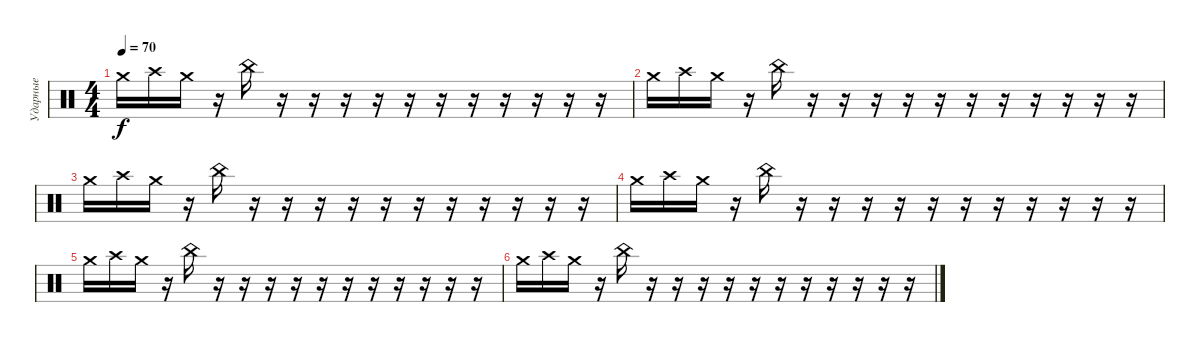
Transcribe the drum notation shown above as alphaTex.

\track ("Ударные" "Ударные") {instrument percussion}
\staff {score}
\articulation defaults
\ts (4 4)
\tempo 70
\clef neutral
\ks c "Crash medium (hit)".16{dy f} "Crash high (hit)".16 "Crash medium (hit)".16
r.16 "China (hit)".16 r.16 r.16 r.16 r.16 r.16 r.16 r.16 r.16 r.16 r.16 r.16 |
"Crash medium (hit)".16 "Crash high (hit)".16 "Crash medium (hit)".16 r.16 "China (hit)".16 r.16 r.16 r.16 r.16 r.16 r.16 r.16 r.16 r.16 r.16 r.16 |
"Crash medium (hit)".16{volume 0} "Crash high (hit)".16 "Crash medium (hit)".16 r.16 "China (hit)".16 r.16 r.16 r.16 r.16 r.16 r.16 r.16 r.16 r.16 r.16 r.16 |
"Crash medium (hit)".16 "Crash high (hit)".16 "Crash medium (hit)".16 r.16 "China (hit)".16 r.16 r.16 r.16 r.16 r.16 r.16 r.16 r.16 r.16 r.16 r.16 |
"Crash medium (hit)".16 "Crash high (hit)".16 "Crash medium (hit)".16 r.16 "China (hit)".16 r.16 r.16 r.16 r.16 r.16 r.16 r.16 r.16 r.16 r.16 r.16 |
"Crash medium (hit)".16 "Crash high (hit)".16 "Crash medium (hit)".16 r.16 "China (hit)".16 r.16 r.16 r.16 r.16 r.16 r.16 r.16 r.16 r.16 r.16 r.16
